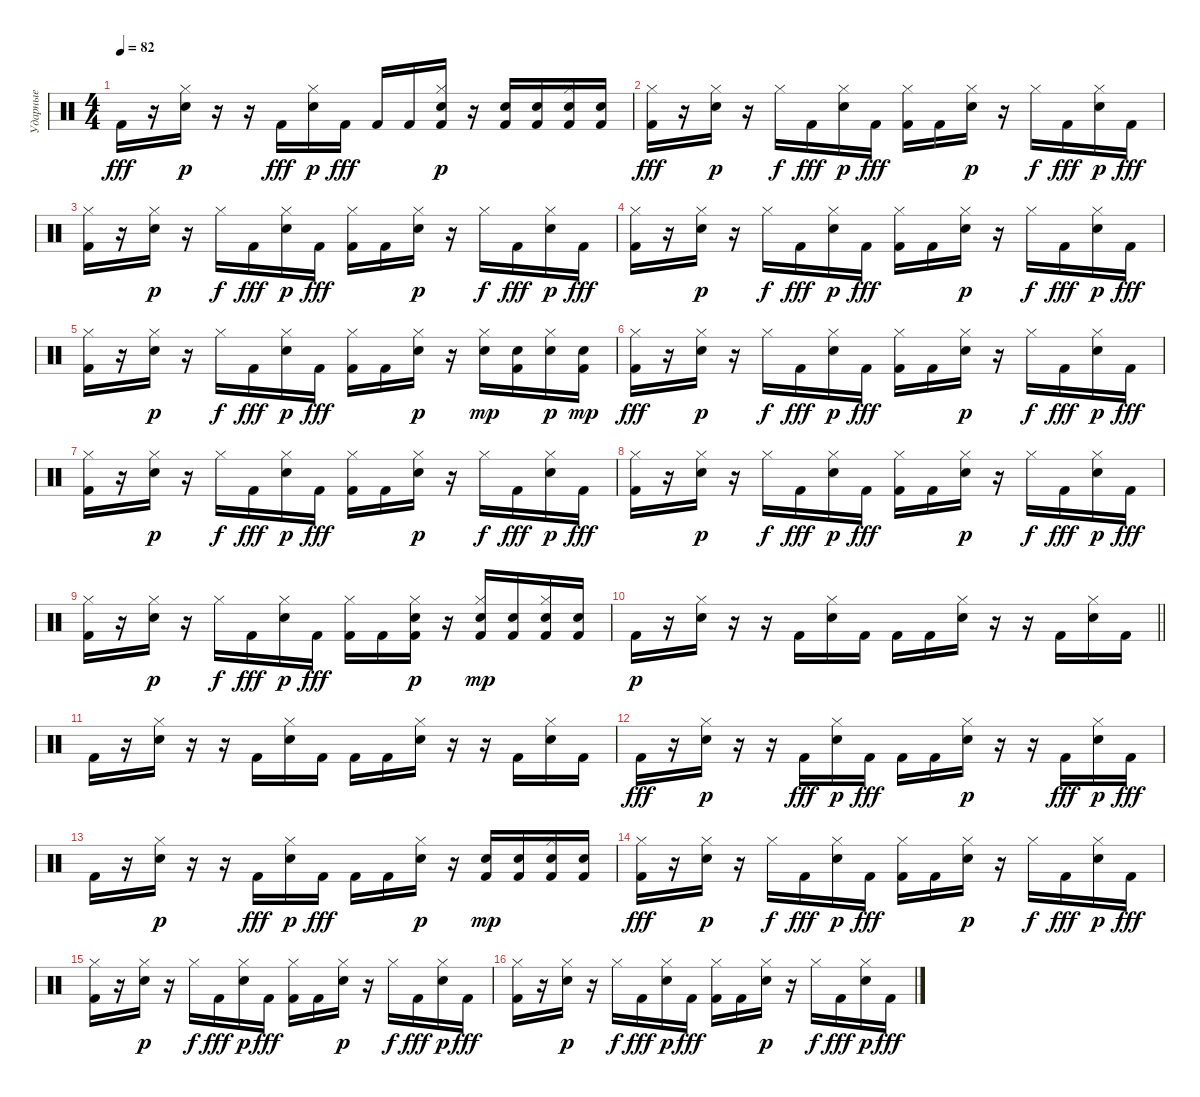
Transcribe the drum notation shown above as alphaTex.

\track ("Ударные" "Ударные") {instrument percussion}
\staff {score}
\articulation defaults
\ts (4 4)
\tempo 82
\clef neutral
\ks c "Kick (hit) 2".16{dy fff}
r.16 ("Hi-Hat (closed)" "Electric Snare (hit)").16{dy p} r.16 r.16 "Kick (hit) 2".16{dy fff} ("Hi-Hat (closed)" "Electric Snare (hit)").16{dy p} "Kick (hit) 2".16{dy fff} "Kick (hit) 2".16 "Kick (hit) 2".16 ("Kick (hit) 2" "Hi-Hat (closed)" "Electric Snare (hit)").16{dy p} r.16 ("Kick (hit) 2" "Electric Snare (hit)").16 ("Kick (hit) 2" "Electric Snare (hit)").16 ("Kick (hit) 2" "Hi-Hat (closed)" "Electric Snare (hit)").16 ("Kick (hit) 2" "Electric Snare (hit)").16 |
("Kick (hit) 2" "Hi-Hat (closed)").16{dy fff} r.16 ("Hi-Hat (closed)" "Electric Snare (hit)").16{dy p} r.16 "Hi-Hat (closed)".16{dy f} "Kick (hit) 2".16{dy fff} ("Hi-Hat (closed)" "Electric Snare (hit)").16{dy p} "Kick (hit) 2".16{dy fff} ("Kick (hit) 2" "Hi-Hat (closed)").16 "Kick (hit) 2".16 ("Hi-Hat (closed)" "Electric Snare (hit)").16{dy p} r.16 "Hi-Hat (closed)".16{dy f} "Kick (hit) 2".16{dy fff} ("Hi-Hat (closed)" "Electric Snare (hit)").16{dy p} "Kick (hit) 2".16{dy fff} |
("Kick (hit) 2" "Hi-Hat (closed)").16 r.16 ("Hi-Hat (closed)" "Electric Snare (hit)").16{dy p} r.16 "Hi-Hat (closed)".16{dy f} "Kick (hit) 2".16{dy fff} ("Hi-Hat (closed)" "Electric Snare (hit)").16{dy p} "Kick (hit) 2".16{dy fff} ("Kick (hit) 2" "Hi-Hat (closed)").16 "Kick (hit) 2".16 ("Hi-Hat (closed)" "Electric Snare (hit)").16{dy p} r.16 "Hi-Hat (closed)".16{dy f} "Kick (hit) 2".16{dy fff} ("Hi-Hat (closed)" "Electric Snare (hit)").16{dy p} "Kick (hit) 2".16{dy fff} |
("Kick (hit) 2" "Hi-Hat (closed)").16 r.16 ("Hi-Hat (closed)" "Electric Snare (hit)").16{dy p} r.16 "Hi-Hat (closed)".16{dy f} "Kick (hit) 2".16{dy fff} ("Hi-Hat (closed)" "Electric Snare (hit)").16{dy p} "Kick (hit) 2".16{dy fff} ("Kick (hit) 2" "Hi-Hat (closed)").16 "Kick (hit) 2".16 ("Hi-Hat (closed)" "Electric Snare (hit)").16{dy p} r.16 "Hi-Hat (closed)".16{dy f} "Kick (hit) 2".16{dy fff} ("Hi-Hat (closed)" "Electric Snare (hit)").16{dy p} "Kick (hit) 2".16{dy fff} |
("Kick (hit) 2" "Hi-Hat (closed)").16 r.16 ("Hi-Hat (closed)" "Electric Snare (hit)").16{dy p} r.16 "Hi-Hat (closed)".16{dy f} "Kick (hit) 2".16{dy fff} ("Hi-Hat (closed)" "Electric Snare (hit)").16{dy p} "Kick (hit) 2".16{dy fff} ("Kick (hit) 2" "Hi-Hat (closed)").16 "Kick (hit) 2".16 ("Hi-Hat (closed)" "Electric Snare (hit)").16{dy p} r.16 ("Hi-Hat (closed)" "Electric Snare (hit)").16{dy mp} ("Kick (hit) 2" "Electric Snare (hit)").16 ("Hi-Hat (closed)" "Electric Snare (hit)").16{dy p} ("Kick (hit) 2" "Electric Snare (hit)").16{dy mp} |
("Kick (hit) 2" "Hi-Hat (closed)").16{dy fff} r.16 ("Hi-Hat (closed)" "Electric Snare (hit)").16{dy p} r.16 "Hi-Hat (closed)".16{dy f} "Kick (hit) 2".16{dy fff} ("Hi-Hat (closed)" "Electric Snare (hit)").16{dy p} "Kick (hit) 2".16{dy fff} ("Kick (hit) 2" "Hi-Hat (closed)").16 "Kick (hit) 2".16 ("Hi-Hat (closed)" "Electric Snare (hit)").16{dy p} r.16 "Hi-Hat (closed)".16{dy f} "Kick (hit) 2".16{dy fff} ("Hi-Hat (closed)" "Electric Snare (hit)").16{dy p} "Kick (hit) 2".16{dy fff} |
("Kick (hit) 2" "Hi-Hat (closed)").16 r.16 ("Hi-Hat (closed)" "Electric Snare (hit)").16{dy p} r.16 "Hi-Hat (closed)".16{dy f} "Kick (hit) 2".16{dy fff} ("Hi-Hat (closed)" "Electric Snare (hit)").16{dy p} "Kick (hit) 2".16{dy fff} ("Kick (hit) 2" "Hi-Hat (closed)").16 "Kick (hit) 2".16 ("Hi-Hat (closed)" "Electric Snare (hit)").16{dy p} r.16 "Hi-Hat (closed)".16{dy f} "Kick (hit) 2".16{dy fff} ("Hi-Hat (closed)" "Electric Snare (hit)").16{dy p} "Kick (hit) 2".16{dy fff} |
("Kick (hit) 2" "Hi-Hat (closed)").16 r.16 ("Hi-Hat (closed)" "Electric Snare (hit)").16{dy p} r.16 "Hi-Hat (closed)".16{dy f} "Kick (hit) 2".16{dy fff} ("Hi-Hat (closed)" "Electric Snare (hit)").16{dy p} "Kick (hit) 2".16{dy fff} ("Kick (hit) 2" "Hi-Hat (closed)").16 "Kick (hit) 2".16 ("Hi-Hat (closed)" "Electric Snare (hit)").16{dy p} r.16 "Hi-Hat (closed)".16{dy f} "Kick (hit) 2".16{dy fff} ("Hi-Hat (closed)" "Electric Snare (hit)").16{dy p} "Kick (hit) 2".16{dy fff} |
("Kick (hit) 2" "Hi-Hat (closed)").16 r.16 ("Hi-Hat (closed)" "Electric Snare (hit)").16{dy p} r.16 "Hi-Hat (closed)".16{dy f} "Kick (hit) 2".16{dy fff} ("Hi-Hat (closed)" "Electric Snare (hit)").16{dy p} "Kick (hit) 2".16{dy fff} ("Kick (hit) 2" "Hi-Hat (closed)").16 "Kick (hit) 2".16 ("Kick (hit) 2" "Hi-Hat (closed)" "Electric Snare (hit)").16{dy p} r.16 ("Kick (hit) 2" "Hi-Hat (closed)" "Electric Snare (hit)").16{dy mp} ("Kick (hit) 2" "Electric Snare (hit)").16 ("Kick (hit) 2" "Hi-Hat (closed)" "Electric Snare (hit)").16 ("Kick (hit) 2" "Electric Snare (hit)").16 |
\barLineRight lightlight "Kick (hit) 2".16{dy p}
r.16 ("Hi-Hat (closed)" "Electric Snare (hit)").16 r.16 r.16 "Kick (hit) 2".16 ("Hi-Hat (closed)" "Electric Snare (hit)").16 "Kick (hit) 2".16 "Kick (hit) 2".16 "Kick (hit) 2".16 ("Hi-Hat (closed)" "Electric Snare (hit)").16 r.16 r.16 "Kick (hit) 2".16 ("Hi-Hat (closed)" "Electric Snare (hit)").16 "Kick (hit) 2".16 |
"Kick (hit) 2".16 r.16 ("Hi-Hat (closed)" "Electric Snare (hit)").16 r.16 r.16 "Kick (hit) 2".16 ("Hi-Hat (closed)" "Electric Snare (hit)").16 "Kick (hit) 2".16 "Kick (hit) 2".16 "Kick (hit) 2".16 ("Hi-Hat (closed)" "Electric Snare (hit)").16 r.16 r.16 "Kick (hit) 2".16 ("Hi-Hat (closed)" "Electric Snare (hit)").16 "Kick (hit) 2".16 |
"Kick (hit) 2".16{dy fff} r.16 ("Hi-Hat (closed)" "Electric Snare (hit)").16{dy p} r.16 r.16 "Kick (hit) 2".16{dy fff} ("Hi-Hat (closed)" "Electric Snare (hit)").16{dy p} "Kick (hit) 2".16{dy fff} "Kick (hit) 2".16 "Kick (hit) 2".16 ("Hi-Hat (closed)" "Electric Snare (hit)").16{dy p} r.16 r.16 "Kick (hit) 2".16{dy fff} ("Hi-Hat (closed)" "Electric Snare (hit)").16{dy p} "Kick (hit) 2".16{dy fff} |
"Kick (hit) 2".16 r.16 ("Hi-Hat (closed)" "Electric Snare (hit)").16{dy p} r.16 r.16 "Kick (hit) 2".16{dy fff} ("Hi-Hat (closed)" "Electric Snare (hit)").16{dy p} "Kick (hit) 2".16{dy fff} "Kick (hit) 2".16 "Kick (hit) 2".16 ("Hi-Hat (closed)" "Electric Snare (hit)").16{dy p} r.16 ("Kick (hit) 2" "Electric Snare (hit)").16{dy mp} ("Kick (hit) 2" "Electric Snare (hit)").16 ("Kick (hit) 2" "Hi-Hat (closed)" "Electric Snare (hit)").16 ("Kick (hit) 2" "Electric Snare (hit)").16 |
("Kick (hit) 2" "Hi-Hat (closed)").16{dy fff} r.16 ("Hi-Hat (closed)" "Electric Snare (hit)").16{dy p} r.16 "Hi-Hat (closed)".16{dy f} "Kick (hit) 2".16{dy fff} ("Hi-Hat (closed)" "Electric Snare (hit)").16{dy p} "Kick (hit) 2".16{dy fff} ("Kick (hit) 2" "Hi-Hat (closed)").16 "Kick (hit) 2".16 ("Hi-Hat (closed)" "Electric Snare (hit)").16{dy p} r.16 "Hi-Hat (closed)".16{dy f} "Kick (hit) 2".16{dy fff} ("Hi-Hat (closed)" "Electric Snare (hit)").16{dy p} "Kick (hit) 2".16{dy fff} |
("Kick (hit) 2" "Hi-Hat (closed)").16 r.16 ("Hi-Hat (closed)" "Electric Snare (hit)").16{dy p} r.16 "Hi-Hat (closed)".16{dy f} "Kick (hit) 2".16{dy fff} ("Hi-Hat (closed)" "Electric Snare (hit)").16{dy p} "Kick (hit) 2".16{dy fff} ("Kick (hit) 2" "Hi-Hat (closed)").16 "Kick (hit) 2".16 ("Hi-Hat (closed)" "Electric Snare (hit)").16{dy p} r.16 "Hi-Hat (closed)".16{dy f} "Kick (hit) 2".16{dy fff} ("Hi-Hat (closed)" "Electric Snare (hit)").16{dy p} "Kick (hit) 2".16{dy fff} |
("Kick (hit) 2" "Hi-Hat (closed)").16 r.16 ("Hi-Hat (closed)" "Electric Snare (hit)").16{dy p} r.16 "Hi-Hat (closed)".16{dy f} "Kick (hit) 2".16{dy fff} ("Hi-Hat (closed)" "Electric Snare (hit)").16{dy p} "Kick (hit) 2".16{dy fff} ("Kick (hit) 2" "Hi-Hat (closed)").16 "Kick (hit) 2".16 ("Hi-Hat (closed)" "Electric Snare (hit)").16{dy p} r.16 "Hi-Hat (closed)".16{dy f} "Kick (hit) 2".16{dy fff} ("Hi-Hat (closed)" "Electric Snare (hit)").16{dy p} "Kick (hit) 2".16{dy fff}
